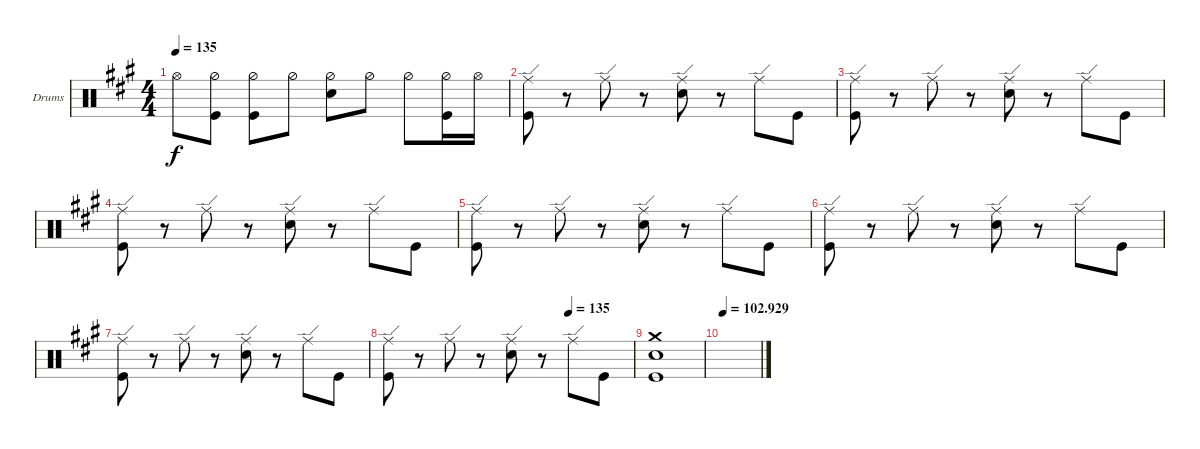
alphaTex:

\defaultSystemsLayout 4
\bracketExtendMode groupsimilarinstruments
\firstSystemTrackNameOrientation horizontal
\otherSystemsTrackNameOrientation horizontal
\track ("Drums" "Drums") {instrument percussion}
\staff {score}
\articulation defaults
\ts (4 4)
\tempo 135
\clef neutral
\ks f#minor "Hi-Hat (open)".8{dy f}
("Hi-Hat (half)" "Kick (hit)").8 ("Hi-Hat (half)" "Kick (hit)").8 "Hi-Hat (half)".8 ("Hi-Hat (half)" "Snare (hit) 2").8 "Hi-Hat (half)".8 "Hi-Hat (half)".8 ("Hi-Hat (half)" "Kick (hit)").16 "Hi-Hat (open)".16 |
("Kick (hit)" "Ride (edge)").8 r.8 "Ride (edge)".8 r.8 ("Snare (hit) 2" "Ride (edge)").8 r.8 "Ride (edge)".8 "Kick (hit)".8 |
("Kick (hit)" "Ride (edge)").8 r.8 "Ride (edge)".8 r.8 ("Snare (hit) 2" "Ride (edge)").8 r.8 "Ride (edge)".8 "Kick (hit)".8 |
("Kick (hit)" "Ride (edge)").8 r.8 "Ride (edge)".8 r.8 ("Snare (hit) 2" "Ride (edge)").8 r.8 "Ride (edge)".8 "Kick (hit)".8 |
("Kick (hit)" "Ride (edge)").8 r.8 "Ride (edge)".8 r.8 ("Snare (hit) 2" "Ride (edge)").8 r.8 "Ride (edge)".8 "Kick (hit)".8 |
("Kick (hit)" "Ride (edge)").8 r.8 "Ride (edge)".8 r.8 ("Snare (hit) 2" "Ride (edge)").8 r.8 "Ride (edge)".8 "Kick (hit)".8 |
("Kick (hit)" "Ride (edge)").8 r.8 "Ride (edge)".8 r.8 ("Snare (hit) 2" "Ride (edge)").8 r.8 "Ride (edge)".8 "Kick (hit)".8 |
\tempo (135 0.738462)
("Kick (hit)" "Ride (edge)").8 r.8 "Ride (edge)".8 r.8 ("Snare (hit) 2" "Ride (edge)").8 r.8 "Ride (edge)".8 "Kick (hit)".8 |
("Crash medium (hit)" "Snare (hit) 2" "Kick (hit)").1 |
\tempo
102.929
